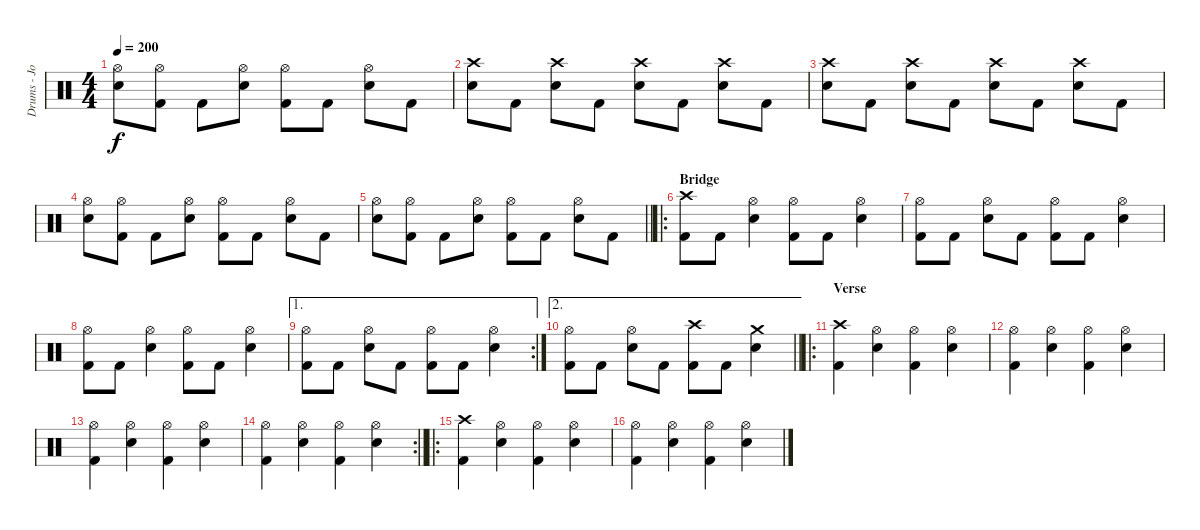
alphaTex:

\track ("Drums - John" "Drums - Jo") {instrument percussion}
\staff {score}
\articulation defaults
\ts (4 4)
\tempo 200
\clef neutral
\ks c
("Hi-Hat (open)" "Electric Snare (hit)").8{dy f} ("Hi-Hat (open)" "Kick (hit) 2").8 "Kick (hit) 2".8 ("Hi-Hat (open)" "Electric Snare (hit)").8 ("Hi-Hat (open)" "Kick (hit) 2").8 "Kick (hit) 2".8 ("Hi-Hat (open)" "Electric Snare (hit)").8 "Kick (hit) 2".8 |
("Crash high (hit)" "Electric Snare (hit)").8 "Kick (hit) 2".8 ("Crash high (hit)" "Electric Snare (hit)").8 "Kick (hit) 2".8 ("Crash high (hit)" "Electric Snare (hit)").8 "Kick (hit) 2".8 ("Crash high (hit)" "Electric Snare (hit)").8 "Kick (hit) 2".8 |
("Crash high (hit)" "Electric Snare (hit)").8 "Kick (hit) 2".8 ("Crash high (hit)" "Electric Snare (hit)").8 "Kick (hit) 2".8 ("Crash high (hit)" "Electric Snare (hit)").8 "Kick (hit) 2".8 ("Crash high (hit)" "Electric Snare (hit)").8 "Kick (hit) 2".8 |
("Hi-Hat (open)" "Electric Snare (hit)").8 ("Hi-Hat (open)" "Kick (hit) 2").8 "Kick (hit) 2".8 ("Hi-Hat (open)" "Electric Snare (hit)").8 ("Hi-Hat (open)" "Kick (hit) 2").8 "Kick (hit) 2".8 ("Hi-Hat (open)" "Electric Snare (hit)").8 "Kick (hit) 2".8 |
\barLineRight lightlight
("Hi-Hat (open)" "Electric Snare (hit)").8 ("Hi-Hat (open)" "Kick (hit) 2").8 "Kick (hit) 2".8 ("Hi-Hat (open)" "Electric Snare (hit)").8 ("Hi-Hat (open)" "Kick (hit) 2").8 "Kick (hit) 2".8 ("Hi-Hat (open)" "Electric Snare (hit)").8 "Kick (hit) 2".8 |
\ro
\section ("" "Bridge")
("Crash high (hit)" "Kick (hit) 2").8 "Kick (hit) 2".8 ("Electric Snare (hit)" "Hi-Hat (open)").4 ("Kick (hit) 2" "Hi-Hat (open)").8 "Kick (hit) 2".8 ("Electric Snare (hit)" "Hi-Hat (open)").4 |
("Kick (hit) 2" "Hi-Hat (open)").8 "Kick (hit) 2".8 ("Electric Snare (hit)" "Hi-Hat (open)").8 "Kick (hit) 2".8 ("Kick (hit) 2" "Hi-Hat (open)").8 "Kick (hit) 2".8 ("Electric Snare (hit)" "Hi-Hat (open)").4 |
("Kick (hit) 2" "Hi-Hat (open)").8 "Kick (hit) 2".8 ("Electric Snare (hit)" "Hi-Hat (open)").4 ("Kick (hit) 2" "Hi-Hat (open)").8 "Kick (hit) 2".8 ("Electric Snare (hit)" "Hi-Hat (open)").4 |
\ae 1
\rc 2
("Kick (hit) 2" "Hi-Hat (open)").8 "Kick (hit) 2".8 ("Electric Snare (hit)" "Hi-Hat (open)").8 "Kick (hit) 2".8 ("Kick (hit) 2" "Hi-Hat (open)").8 "Kick (hit) 2".8 ("Electric Snare (hit)" "Hi-Hat (open)").4 |
\ae 2
\barLineRight lightlight
("Kick (hit) 2" "Hi-Hat (open)").8 "Kick (hit) 2".8 ("Electric Snare (hit)" "Hi-Hat (open)").8 "Kick (hit) 2".8 ("Crash high (hit)" "Kick (hit) 2").8 "Kick (hit) 2".8 ("Crash medium (hit)" "Electric Snare (hit)").4 |
\ro
\section ("" "Verse")
("Crash high (hit)" "Kick (hit) 2").4 ("Electric Snare (hit)" "Hi-Hat (open)").4 ("Kick (hit) 2" "Hi-Hat (open)").4 ("Electric Snare (hit)" "Hi-Hat (open)").4 |
("Kick (hit) 2" "Hi-Hat (open)").4 ("Electric Snare (hit)" "Hi-Hat (open)").4 ("Kick (hit) 2" "Hi-Hat (open)").4 ("Electric Snare (hit)" "Hi-Hat (open)").4 |
("Kick (hit) 2" "Hi-Hat (open)").4 ("Electric Snare (hit)" "Hi-Hat (open)").4 ("Kick (hit) 2" "Hi-Hat (open)").4 ("Electric Snare (hit)" "Hi-Hat (open)").4 |
\rc 2
\barLineRight lightlight
("Kick (hit) 2" "Hi-Hat (open)").4 ("Electric Snare (hit)" "Hi-Hat (open)").4 ("Kick (hit) 2" "Hi-Hat (open)").4 ("Electric Snare (hit)" "Hi-Hat (open)").4 |
\ro
("Crash high (hit)" "Kick (hit) 2").4 ("Electric Snare (hit)" "Hi-Hat (open)").4 ("Kick (hit) 2" "Hi-Hat (open)").4 ("Electric Snare (hit)" "Hi-Hat (open)").4 |
("Kick (hit) 2" "Hi-Hat (open)").4 ("Electric Snare (hit)" "Hi-Hat (open)").4 ("Kick (hit) 2" "Hi-Hat (open)").4 ("Electric Snare (hit)" "Hi-Hat (open)").4
